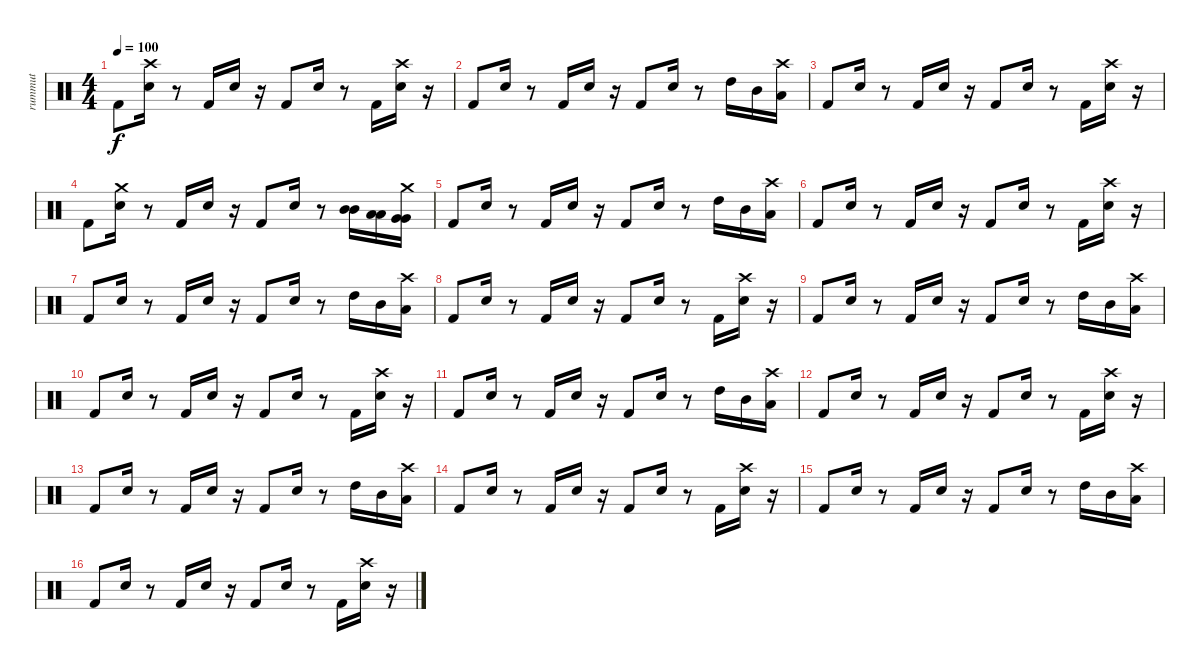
\track ("rummut" "rummut") {instrument percussion}
\staff {score}
\articulation defaults
\ts (4 4)
\tempo 100
\clef neutral
\ks c "Kick (hit) 2".8{dy f}
("Crash high (hit)" "Snare (hit) 2").16 r.8 "Kick (hit) 2".16 "Snare (hit) 2".16 r.16 "Kick (hit) 2".8 "Snare (hit) 2".16 r.8 "Kick (hit) 2".16 ("Crash high (hit)" "Snare (hit) 2").16 r.16 |
"Kick (hit) 2".8 "Snare (hit) 2".16 r.8 "Kick (hit) 2".16 "Snare (hit) 2".16 r.16 "Kick (hit) 2".8 "Snare (hit) 2".16 r.8 "High Tom (hit)".16 "Mid Tom (hit)".16 ("Crash high (hit)" "Low Tom (hit)").16 |
"Kick (hit) 2".8 "Snare (hit) 2".16 r.8 "Kick (hit) 2".16 "Snare (hit) 2".16 r.16 "Kick (hit) 2".8 "Snare (hit) 2".16 r.8 "Kick (hit) 2".16 ("Crash high (hit)" "Snare (hit) 2").16 r.16 |
"Kick (hit) 2".8 ("Crash medium (hit)" "Snare (hit) 2").16 r.8 "Kick (hit) 2".16 "Snare (hit) 2".16 r.16 "Kick (hit) 2".8 "Snare (hit) 2".16 r.8 ("Mid Tom (hit)" "Mid Tom (hit)").16 ("Low Tom (hit)" "Low Tom (hit)").16 ("Crash medium (hit)" "Very Low Tom (hit)" "Very Low Tom (hit)").16 |
"Kick (hit) 2".8 "Snare (hit) 2".16 r.8 "Kick (hit) 2".16 "Snare (hit) 2".16 r.16 "Kick (hit) 2".8 "Snare (hit) 2".16 r.8 "High Tom (hit)".16 "Mid Tom (hit)".16 ("Crash high (hit)" "Low Tom (hit)").16 |
"Kick (hit) 2".8 "Snare (hit) 2".16 r.8 "Kick (hit) 2".16 "Snare (hit) 2".16 r.16 "Kick (hit) 2".8 "Snare (hit) 2".16 r.8 "Kick (hit) 2".16 ("Crash high (hit)" "Snare (hit) 2").16 r.16 |
"Kick (hit) 2".8 "Snare (hit) 2".16 r.8 "Kick (hit) 2".16 "Snare (hit) 2".16 r.16 "Kick (hit) 2".8 "Snare (hit) 2".16 r.8 "High Tom (hit)".16 "Mid Tom (hit)".16 ("Crash high (hit)" "Low Tom (hit)").16 |
"Kick (hit) 2".8 "Snare (hit) 2".16 r.8 "Kick (hit) 2".16 "Snare (hit) 2".16 r.16 "Kick (hit) 2".8 "Snare (hit) 2".16 r.8 "Kick (hit) 2".16 ("Crash high (hit)" "Snare (hit) 2").16 r.16 |
"Kick (hit) 2".8 "Snare (hit) 2".16 r.8 "Kick (hit) 2".16 "Snare (hit) 2".16 r.16 "Kick (hit) 2".8 "Snare (hit) 2".16 r.8 "High Tom (hit)".16 "Mid Tom (hit)".16 ("Crash high (hit)" "Low Tom (hit)").16 |
"Kick (hit) 2".8 "Snare (hit) 2".16 r.8 "Kick (hit) 2".16 "Snare (hit) 2".16 r.16 "Kick (hit) 2".8 "Snare (hit) 2".16 r.8 "Kick (hit) 2".16 ("Crash high (hit)" "Snare (hit) 2").16 r.16 |
"Kick (hit) 2".8 "Snare (hit) 2".16 r.8 "Kick (hit) 2".16 "Snare (hit) 2".16 r.16 "Kick (hit) 2".8 "Snare (hit) 2".16 r.8 "High Tom (hit)".16 "Mid Tom (hit)".16 ("Crash high (hit)" "Low Tom (hit)").16 |
"Kick (hit) 2".8 "Snare (hit) 2".16 r.8 "Kick (hit) 2".16 "Snare (hit) 2".16 r.16 "Kick (hit) 2".8 "Snare (hit) 2".16 r.8 "Kick (hit) 2".16 ("Crash high (hit)" "Snare (hit) 2").16 r.16 |
"Kick (hit) 2".8 "Snare (hit) 2".16 r.8 "Kick (hit) 2".16 "Snare (hit) 2".16 r.16 "Kick (hit) 2".8 "Snare (hit) 2".16 r.8 "High Tom (hit)".16 "Mid Tom (hit)".16 ("Crash high (hit)" "Low Tom (hit)").16 |
"Kick (hit) 2".8 "Snare (hit) 2".16 r.8 "Kick (hit) 2".16 "Snare (hit) 2".16 r.16 "Kick (hit) 2".8 "Snare (hit) 2".16 r.8 "Kick (hit) 2".16 ("Crash high (hit)" "Snare (hit) 2").16 r.16 |
"Kick (hit) 2".8 "Snare (hit) 2".16 r.8 "Kick (hit) 2".16 "Snare (hit) 2".16 r.16 "Kick (hit) 2".8 "Snare (hit) 2".16 r.8 "High Tom (hit)".16 "Mid Tom (hit)".16 ("Crash high (hit)" "Low Tom (hit)").16 |
"Kick (hit) 2".8 "Snare (hit) 2".16 r.8 "Kick (hit) 2".16 "Snare (hit) 2".16 r.16 "Kick (hit) 2".8 "Snare (hit) 2".16 r.8 "Kick (hit) 2".16 ("Crash high (hit)" "Snare (hit) 2").16 r.16
